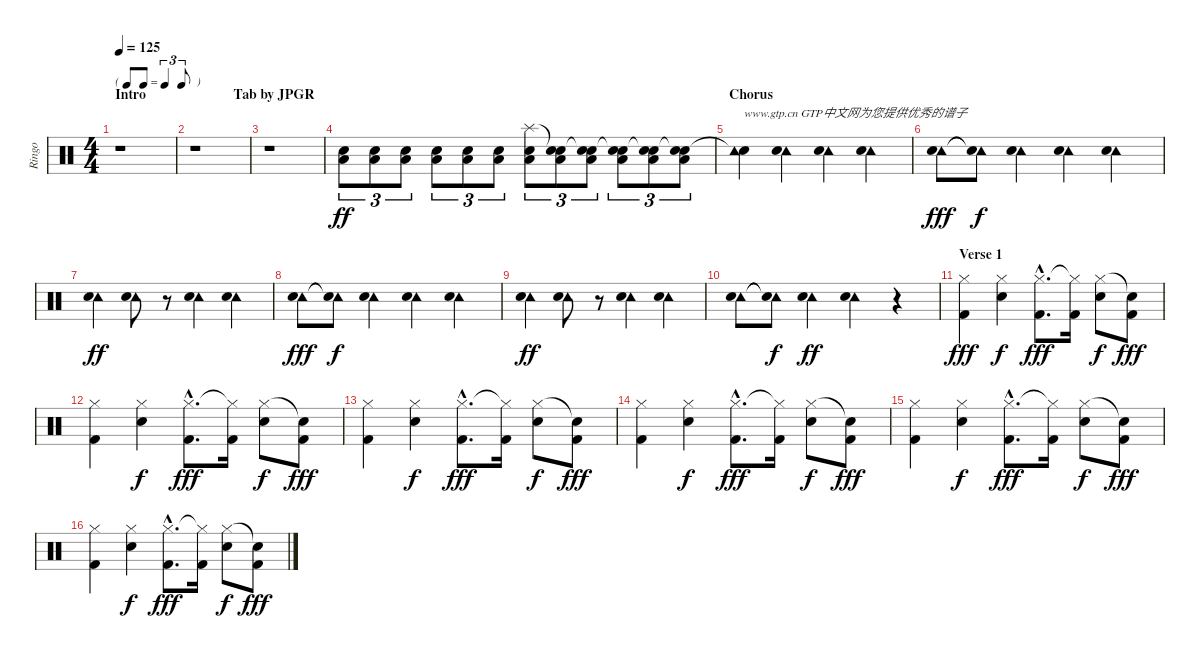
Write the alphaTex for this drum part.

\track ("Ringo" "Ringo") {instrument percussion}
\staff {score}
\articulation defaults
\ts (4 4)
\tf triplet8th
\section ("" "Intro                         Tab by JPGR")
\tempo 125
\clef neutral
\ks c
r.1{dy ff} |
r.1 |
r.1 |
("Electric Snare (hit)" "Low Floor Tom (hit)").8{tu (3 2)} ("Electric Snare (hit)" "Low Floor Tom (hit)").8{tu (3 2)} ("Electric Snare (hit)" "Low Floor Tom (hit)").8{tu (3 2)} ("Electric Snare (hit)" "Low Floor Tom (hit)").8{tu (3 2)} ("Electric Snare (hit)" "Low Floor Tom (hit)").8{tu (3 2)} ("Electric Snare (hit)" "Low Floor Tom (hit)").8{tu (3 2)} ("Splash (hit)" "Electric Snare (hit)" "Low Floor Tom (hit)").8{tu (3 2)} ("Snare (hit)"{t} "Electric Snare (hit)" "Low Floor Tom (hit)").8{tu (3 2)} ("Snare (hit)"{t} "Electric Snare (hit)" "Low Floor Tom (hit)").8{tu (3 2)} ("Snare (hit)"{t} "Electric Snare (hit)" "Low Floor Tom (hit)").8{tu (3 2)} ("Snare (hit)"{t} "Electric Snare (hit)" "Low Floor Tom (hit)").8{tu (3 2)} ("Snare (hit)"{t} "Electric Snare (hit)" "Low Floor Tom (hit)").8{tu (3 2)} |
\section ("" "Chorus")
("Snare (hit)"{t} "Tambourine (hit)").4{txt "www.gtp.cn GTP中文网为您提供优秀的谱子"} ("Tambourine (hit)" "Electric Snare (hit)").4 ("Tambourine (hit)" "Electric Snare (hit)").4 ("Tambourine (hit)" "Electric Snare (hit)").4 |
("Tambourine (hit)" "Electric Snare (hit)").8{dy fff} ("Tambourine (hit)"{t} "Electric Snare (hit)"{t}).8{dy f} ("Tambourine (hit)" "Electric Snare (hit)").4 ("Tambourine (hit)" "Electric Snare (hit)").4 ("Tambourine (hit)" "Electric Snare (hit)").4 |
("Tambourine (hit)" "Electric Snare (hit)").4{dy ff} ("Tambourine (hit)" "Electric Snare (hit)").8 r.8 ("Tambourine (hit)" "Electric Snare (hit)").4 ("Tambourine (hit)" "Electric Snare (hit)").4 |
("Tambourine (hit)" "Electric Snare (hit)").8{dy fff} ("Tambourine (hit)"{t} "Electric Snare (hit)"{t}).8{dy f} ("Tambourine (hit)" "Electric Snare (hit)").4 ("Tambourine (hit)" "Electric Snare (hit)").4 ("Tambourine (hit)" "Electric Snare (hit)").4 |
("Tambourine (hit)" "Electric Snare (hit)").4{dy ff} ("Tambourine (hit)" "Electric Snare (hit)").8 r.8 ("Tambourine (hit)" "Electric Snare (hit)").4 ("Tambourine (hit)" "Electric Snare (hit)").4 |
("Tambourine (hit)" "Electric Snare (hit)").8 ("Tambourine (hit)"{t} "Electric Snare (hit)"{t}).8{dy f} ("Tambourine (hit)" "Electric Snare (hit)").4{dy ff} ("Tambourine (hit)" "Electric Snare (hit)").4 r.4 |
\section ("" "Verse 1")
("Hi-Hat (closed)" "Kick (hit) 2").4{dy fff} ("Hi-Hat (closed)" "Electric Snare (hit)").4{dy f} ("Hi-Hat (closed)"{hac} "Kick (hit) 2"{hac}).8{d dy fff} ("Hi-Hat (closed)"{t} "Kick (hit) 2").16 ("Hi-Hat (closed)" "Electric Snare (hit)").8{dy f} ("Snare (hit)"{t} "Kick (hit) 2").8{dy fff} |
("Hi-Hat (closed)" "Kick (hit) 2").4 ("Hi-Hat (closed)" "Electric Snare (hit)").4{dy f} ("Hi-Hat (closed)"{hac} "Kick (hit) 2"{hac}).8{d dy fff} ("Hi-Hat (closed)"{t} "Kick (hit) 2").16 ("Hi-Hat (closed)" "Electric Snare (hit)").8{dy f} ("Snare (hit)"{t} "Kick (hit) 2").8{dy fff} |
("Hi-Hat (closed)" "Kick (hit) 2").4 ("Hi-Hat (closed)" "Electric Snare (hit)").4{dy f} ("Hi-Hat (closed)"{hac} "Kick (hit) 2"{hac}).8{d dy fff} ("Hi-Hat (closed)"{t} "Kick (hit) 2").16 ("Hi-Hat (closed)" "Electric Snare (hit)").8{dy f} ("Snare (hit)"{t} "Kick (hit) 2").8{dy fff} |
("Hi-Hat (closed)" "Kick (hit) 2").4 ("Hi-Hat (closed)" "Electric Snare (hit)").4{dy f} ("Hi-Hat (closed)"{hac} "Kick (hit) 2"{hac}).8{d dy fff} ("Hi-Hat (closed)"{t} "Kick (hit) 2").16 ("Hi-Hat (closed)" "Electric Snare (hit)").8{dy f} ("Snare (hit)"{t} "Kick (hit) 2").8{dy fff} |
("Hi-Hat (closed)" "Kick (hit) 2").4 ("Hi-Hat (closed)" "Electric Snare (hit)").4{dy f} ("Hi-Hat (closed)"{hac} "Kick (hit) 2"{hac}).8{d dy fff} ("Hi-Hat (closed)"{t} "Kick (hit) 2").16 ("Hi-Hat (closed)" "Electric Snare (hit)").8{dy f} ("Snare (hit)"{t} "Kick (hit) 2").8{dy fff} |
("Hi-Hat (closed)" "Kick (hit) 2").4 ("Hi-Hat (closed)" "Electric Snare (hit)").4{dy f} ("Hi-Hat (closed)"{hac} "Kick (hit) 2"{hac}).8{d dy fff} ("Hi-Hat (closed)"{t} "Kick (hit) 2").16 ("Hi-Hat (closed)" "Electric Snare (hit)").8{dy f} ("Snare (hit)"{t} "Kick (hit) 2").8{dy fff}
